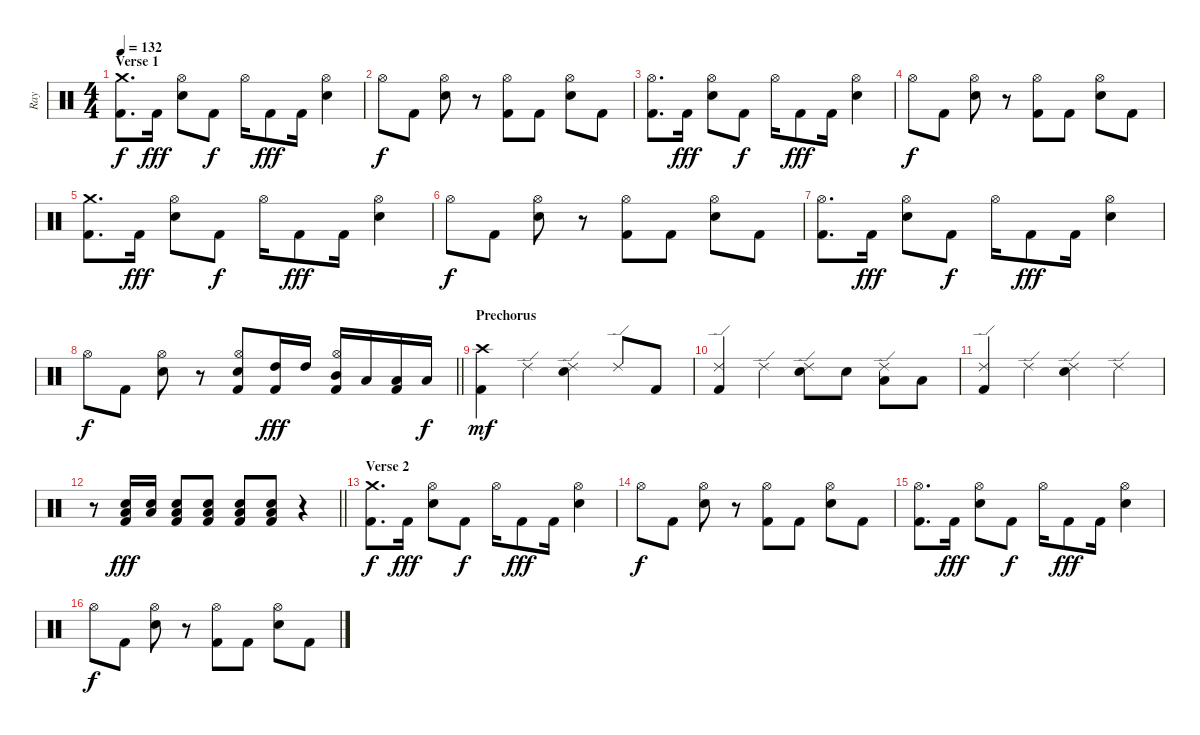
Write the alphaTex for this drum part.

\track ("Ray" "Ray") {instrument percussion}
\staff {score}
\articulation defaults
\ts (4 4)
\section ("" "Verse 1")
\tempo 132
\clef neutral
\ks c
("Crash medium (hit)" "Kick (hit) 2").8{d dy f} "Kick (hit) 2".16{dy fff} ("Hi-Hat (open)" "Snare (hit) 2").8 "Kick (hit) 2".8{dy f} "Hi-Hat (open)".16 "Kick (hit) 2".8{dy fff} "Kick (hit) 2".16 ("Hi-Hat (open)" "Snare (hit) 2").4 |
"Hi-Hat (open)".8{dy f} "Kick (hit) 2".8 ("Hi-Hat (open)" "Snare (hit) 2").8 r.8 ("Hi-Hat (open)" "Kick (hit) 2").8 "Kick (hit) 2".8 ("Hi-Hat (open)" "Snare (hit) 2").8 "Kick (hit) 2".8 |
("Hi-Hat (open)" "Kick (hit) 2").8{d} "Kick (hit) 2".16{dy fff} ("Hi-Hat (open)" "Snare (hit) 2").8 "Kick (hit) 2".8{dy f} "Hi-Hat (open)".16 "Kick (hit) 2".8{dy fff} "Kick (hit) 2".16 ("Hi-Hat (open)" "Snare (hit) 2").4 |
"Hi-Hat (open)".8{dy f} "Kick (hit) 2".8 ("Hi-Hat (open)" "Snare (hit) 2").8 r.8 ("Hi-Hat (open)" "Kick (hit) 2").8 "Kick (hit) 2".8 ("Hi-Hat (open)" "Snare (hit) 2").8 "Kick (hit) 2".8 |
("Crash medium (hit)" "Kick (hit) 2").8{d} "Kick (hit) 2".16{dy fff} ("Hi-Hat (open)" "Snare (hit) 2").8 "Kick (hit) 2".8{dy f} "Hi-Hat (open)".16 "Kick (hit) 2".8{dy fff} "Kick (hit) 2".16 ("Hi-Hat (open)" "Snare (hit) 2").4 |
"Hi-Hat (open)".8{dy f} "Kick (hit) 2".8 ("Hi-Hat (open)" "Snare (hit) 2").8 r.8 ("Hi-Hat (open)" "Kick (hit) 2").8 "Kick (hit) 2".8 ("Hi-Hat (open)" "Snare (hit) 2").8 "Kick (hit) 2".8 |
("Hi-Hat (open)" "Kick (hit) 2").8{d} "Kick (hit) 2".16{dy fff} ("Hi-Hat (open)" "Snare (hit) 2").8 "Kick (hit) 2".8{dy f} "Hi-Hat (open)".16 "Kick (hit) 2".8{dy fff} "Kick (hit) 2".16 ("Hi-Hat (open)" "Snare (hit) 2").4 |
\barLineRight lightlight "Hi-Hat (open)".8{dy f} "Kick (hit) 2".8
("Hi-Hat (open)" "Snare (hit) 2").8 r.8 ("Hi-Hat (open)" "Snare (hit) 2" "Kick (hit) 2").8 ("High Tom (hit)" "Kick (hit) 2").16{dy fff} "High Tom (hit)".16 ("Hi-Hat (open)" "Mid Tom (hit)" "Kick (hit) 2").16 "Low Tom (hit)".16 ("Low Floor Tom (hit)" "Kick (hit) 2").16 "Low Floor Tom (hit)".16{dy f} |
\section ("" "Prechorus")
("Crash high (hit)" "Kick (hit) 2").4{dy mf} "Ride (edge) 2".4 ("Ride (edge) 2" "Snare (hit) 2").4 "Ride (edge) 2".8 "Kick (hit) 2".8 |
("Ride (edge) 2" "Kick (hit) 2").4 "Ride (edge) 2".4 ("Ride (edge) 2" "Snare (hit) 2").8 "Snare (hit) 2".8 ("Ride (edge) 2" "Low Tom (hit)").8 "Low Floor Tom (hit)".8 |
("Ride (edge) 2" "Kick (hit) 2").4 "Ride (edge) 2".4 ("Ride (edge) 2" "Snare (hit) 2").4 "Ride (edge) 2".4 |
\barLineRight lightlight
r.8 ("Snare (hit) 2" "Low Floor Tom (hit)" "Kick (hit) 2").16{dy fff} ("Snare (hit) 2" "Low Floor Tom (hit)").16 ("Snare (hit) 2" "Low Floor Tom (hit)" "Kick (hit) 2").8 ("Snare (hit) 2" "Low Floor Tom (hit)" "Kick (hit) 2").8 ("Snare (hit) 2" "Low Floor Tom (hit)" "Kick (hit) 2").8 ("Snare (hit) 2" "Low Floor Tom (hit)" "Kick (hit) 2").8 r.4 |
\section ("" "Verse 2")
("Crash medium (hit)" "Kick (hit) 2").8{d dy f} "Kick (hit) 2".16{dy fff} ("Hi-Hat (open)" "Snare (hit) 2").8 "Kick (hit) 2".8{dy f} "Hi-Hat (open)".16 "Kick (hit) 2".8{dy fff} "Kick (hit) 2".16 ("Hi-Hat (open)" "Snare (hit) 2").4 |
"Hi-Hat (open)".8{dy f} "Kick (hit) 2".8 ("Hi-Hat (open)" "Snare (hit) 2").8 r.8 ("Hi-Hat (open)" "Kick (hit) 2").8 "Kick (hit) 2".8 ("Hi-Hat (open)" "Snare (hit) 2").8 "Kick (hit) 2".8 |
("Hi-Hat (open)" "Kick (hit) 2").8{d} "Kick (hit) 2".16{dy fff} ("Hi-Hat (open)" "Snare (hit) 2").8 "Kick (hit) 2".8{dy f} "Hi-Hat (open)".16 "Kick (hit) 2".8{dy fff} "Kick (hit) 2".16 ("Hi-Hat (open)" "Snare (hit) 2").4 |
"Hi-Hat (open)".8{dy f} "Kick (hit) 2".8 ("Hi-Hat (open)" "Snare (hit) 2").8 r.8 ("Hi-Hat (open)" "Kick (hit) 2").8 "Kick (hit) 2".8 ("Hi-Hat (open)" "Snare (hit) 2").8 "Kick (hit) 2".8
